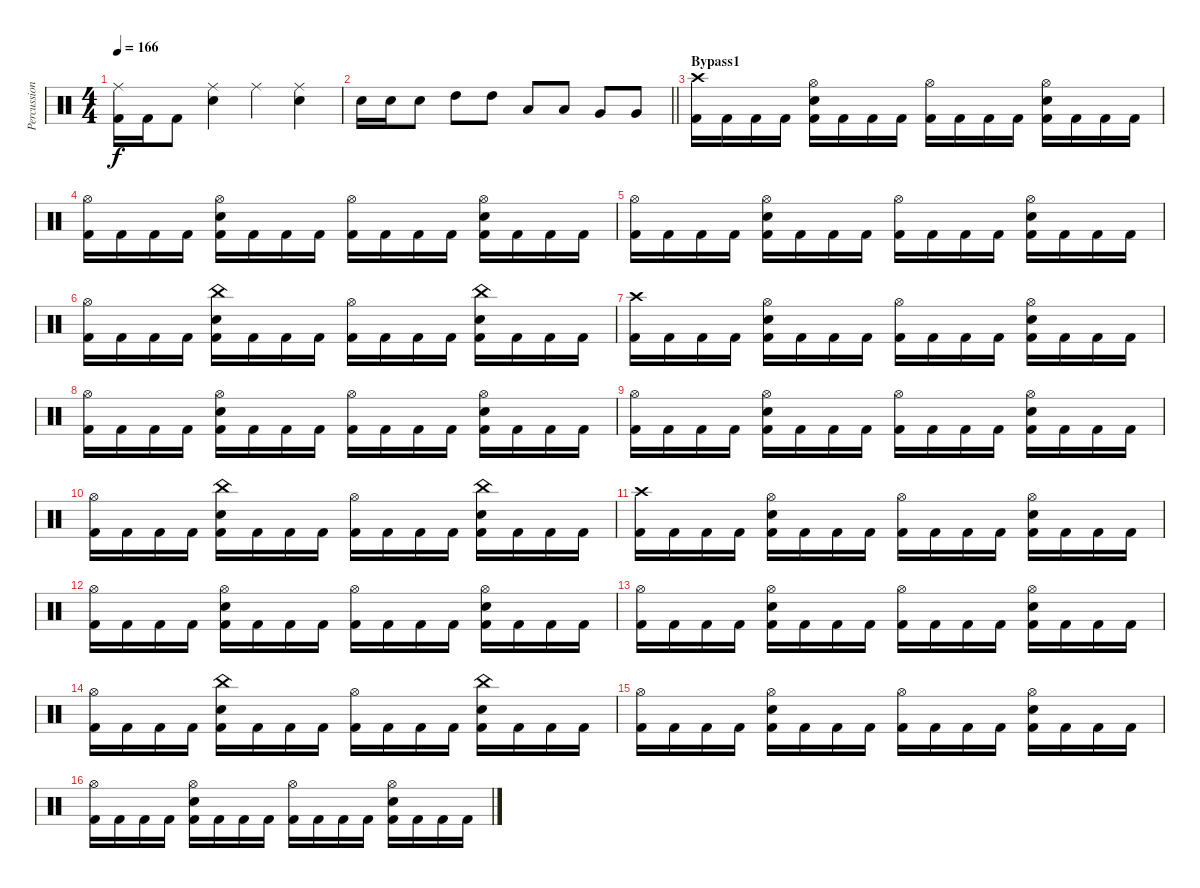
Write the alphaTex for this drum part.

\track ("Percussion" "Percussion") {solo instrument percussion}
\staff {score}
\articulation defaults
\ts (4 4)
\tempo 166
\clef neutral
\ks c
("Ride (middle)" "Kick (hit) 2").16{dy f} "Kick (hit) 2".16 "Kick (hit) 2".8 ("Ride (middle)" "Snare (hit) 2").4 "Ride (middle)".4 ("Ride (middle)" "Snare (hit) 2").4 |
\barLineRight lightlight "Snare (hit) 2".16 "Snare (hit) 2".16 "Snare (hit) 2".8 "High Tom (hit)".8 "High Tom (hit)".8 "Low Tom (hit)".8 "Low Tom (hit)".8 "Very Low Tom (hit)".8 "Very Low Tom (hit)".8
|
\section ("" "Bypass1")
("Crash high (hit)" "Kick (hit) 2").16 "Kick (hit) 2".16 "Kick (hit) 2".16 "Kick (hit) 2".16 ("Snare (hit) 2" "Hi-Hat (open)" "Kick (hit) 2").16 "Kick (hit) 2".16 "Kick (hit) 2".16 "Kick (hit) 2".16 ("Hi-Hat (open)" "Kick (hit) 2").16 "Kick (hit) 2".16 "Kick (hit) 2".16 "Kick (hit) 2".16 ("Snare (hit) 2" "Hi-Hat (open)" "Kick (hit) 2").16 "Kick (hit) 2".16 "Kick (hit) 2".16 "Kick (hit) 2".16 |
("Hi-Hat (open)" "Kick (hit) 2").16 "Kick (hit) 2".16 "Kick (hit) 2".16 "Kick (hit) 2".16 ("Snare (hit) 2" "Hi-Hat (open)" "Kick (hit) 2").16 "Kick (hit) 2".16 "Kick (hit) 2".16 "Kick (hit) 2".16 ("Hi-Hat (open)" "Kick (hit) 2").16 "Kick (hit) 2".16 "Kick (hit) 2".16 "Kick (hit) 2".16 ("Snare (hit) 2" "Hi-Hat (open)" "Kick (hit) 2").16 "Kick (hit) 2".16 "Kick (hit) 2".16 "Kick (hit) 2".16 |
("Hi-Hat (open)" "Kick (hit) 2").16 "Kick (hit) 2".16 "Kick (hit) 2".16 "Kick (hit) 2".16 ("Snare (hit) 2" "Hi-Hat (open)" "Kick (hit) 2").16 "Kick (hit) 2".16 "Kick (hit) 2".16 "Kick (hit) 2".16 ("Hi-Hat (open)" "Kick (hit) 2").16 "Kick (hit) 2".16 "Kick (hit) 2".16 "Kick (hit) 2".16 ("Snare (hit) 2" "Hi-Hat (open)" "Kick (hit) 2").16 "Kick (hit) 2".16 "Kick (hit) 2".16 "Kick (hit) 2".16 |
("Hi-Hat (open)" "Kick (hit) 2").16 "Kick (hit) 2".16 "Kick (hit) 2".16 "Kick (hit) 2".16 ("Snare (hit) 2" "China (hit)" "Kick (hit) 2").16 "Kick (hit) 2".16 "Kick (hit) 2".16 "Kick (hit) 2".16 ("Hi-Hat (open)" "Kick (hit) 2").16 "Kick (hit) 2".16 "Kick (hit) 2".16 "Kick (hit) 2".16 ("Snare (hit) 2" "China (hit)" "Kick (hit) 2").16 "Kick (hit) 2".16 "Kick (hit) 2".16 "Kick (hit) 2".16 |
("Crash high (hit)" "Kick (hit) 2").16 "Kick (hit) 2".16 "Kick (hit) 2".16 "Kick (hit) 2".16 ("Snare (hit) 2" "Hi-Hat (open)" "Kick (hit) 2").16 "Kick (hit) 2".16 "Kick (hit) 2".16 "Kick (hit) 2".16 ("Hi-Hat (open)" "Kick (hit) 2").16 "Kick (hit) 2".16 "Kick (hit) 2".16 "Kick (hit) 2".16 ("Snare (hit) 2" "Hi-Hat (open)" "Kick (hit) 2").16 "Kick (hit) 2".16 "Kick (hit) 2".16 "Kick (hit) 2".16 |
("Hi-Hat (open)" "Kick (hit) 2").16 "Kick (hit) 2".16 "Kick (hit) 2".16 "Kick (hit) 2".16 ("Snare (hit) 2" "Hi-Hat (open)" "Kick (hit) 2").16 "Kick (hit) 2".16 "Kick (hit) 2".16 "Kick (hit) 2".16 ("Hi-Hat (open)" "Kick (hit) 2").16 "Kick (hit) 2".16 "Kick (hit) 2".16 "Kick (hit) 2".16 ("Snare (hit) 2" "Hi-Hat (open)" "Kick (hit) 2").16 "Kick (hit) 2".16 "Kick (hit) 2".16 "Kick (hit) 2".16 |
("Hi-Hat (open)" "Kick (hit) 2").16 "Kick (hit) 2".16 "Kick (hit) 2".16 "Kick (hit) 2".16 ("Snare (hit) 2" "Hi-Hat (open)" "Kick (hit) 2").16 "Kick (hit) 2".16 "Kick (hit) 2".16 "Kick (hit) 2".16 ("Hi-Hat (open)" "Kick (hit) 2").16 "Kick (hit) 2".16 "Kick (hit) 2".16 "Kick (hit) 2".16 ("Snare (hit) 2" "Hi-Hat (open)" "Kick (hit) 2").16 "Kick (hit) 2".16 "Kick (hit) 2".16 "Kick (hit) 2".16 |
("Hi-Hat (open)" "Kick (hit) 2").16 "Kick (hit) 2".16 "Kick (hit) 2".16 "Kick (hit) 2".16 ("Snare (hit) 2" "China (hit)" "Kick (hit) 2").16 "Kick (hit) 2".16 "Kick (hit) 2".16 "Kick (hit) 2".16 ("Hi-Hat (open)" "Kick (hit) 2").16 "Kick (hit) 2".16 "Kick (hit) 2".16 "Kick (hit) 2".16 ("Snare (hit) 2" "China (hit)" "Kick (hit) 2").16 "Kick (hit) 2".16 "Kick (hit) 2".16 "Kick (hit) 2".16 |
("Crash high (hit)" "Kick (hit) 2").16 "Kick (hit) 2".16 "Kick (hit) 2".16 "Kick (hit) 2".16 ("Snare (hit) 2" "Hi-Hat (open)" "Kick (hit) 2").16 "Kick (hit) 2".16 "Kick (hit) 2".16 "Kick (hit) 2".16 ("Hi-Hat (open)" "Kick (hit) 2").16 "Kick (hit) 2".16 "Kick (hit) 2".16 "Kick (hit) 2".16 ("Snare (hit) 2" "Hi-Hat (open)" "Kick (hit) 2").16 "Kick (hit) 2".16 "Kick (hit) 2".16 "Kick (hit) 2".16 |
("Hi-Hat (open)" "Kick (hit) 2").16 "Kick (hit) 2".16 "Kick (hit) 2".16 "Kick (hit) 2".16 ("Snare (hit) 2" "Hi-Hat (open)" "Kick (hit) 2").16 "Kick (hit) 2".16 "Kick (hit) 2".16 "Kick (hit) 2".16 ("Hi-Hat (open)" "Kick (hit) 2").16 "Kick (hit) 2".16 "Kick (hit) 2".16 "Kick (hit) 2".16 ("Snare (hit) 2" "Hi-Hat (open)" "Kick (hit) 2").16 "Kick (hit) 2".16 "Kick (hit) 2".16 "Kick (hit) 2".16 |
("Hi-Hat (open)" "Kick (hit) 2").16 "Kick (hit) 2".16 "Kick (hit) 2".16 "Kick (hit) 2".16 ("Snare (hit) 2" "Hi-Hat (open)" "Kick (hit) 2").16 "Kick (hit) 2".16 "Kick (hit) 2".16 "Kick (hit) 2".16 ("Hi-Hat (open)" "Kick (hit) 2").16 "Kick (hit) 2".16 "Kick (hit) 2".16 "Kick (hit) 2".16 ("Snare (hit) 2" "Hi-Hat (open)" "Kick (hit) 2").16 "Kick (hit) 2".16 "Kick (hit) 2".16 "Kick (hit) 2".16 |
("Hi-Hat (open)" "Kick (hit) 2").16 "Kick (hit) 2".16 "Kick (hit) 2".16 "Kick (hit) 2".16 ("Snare (hit) 2" "China (hit)" "Kick (hit) 2").16 "Kick (hit) 2".16 "Kick (hit) 2".16 "Kick (hit) 2".16 ("Hi-Hat (open)" "Kick (hit) 2").16 "Kick (hit) 2".16 "Kick (hit) 2".16 "Kick (hit) 2".16 ("Snare (hit) 2" "China (hit)" "Kick (hit) 2").16 "Kick (hit) 2".16 "Kick (hit) 2".16 "Kick (hit) 2".16 |
("Hi-Hat (open)" "Kick (hit) 2").16 "Kick (hit) 2".16 "Kick (hit) 2".16 "Kick (hit) 2".16 ("Snare (hit) 2" "Hi-Hat (open)" "Kick (hit) 2").16 "Kick (hit) 2".16 "Kick (hit) 2".16 "Kick (hit) 2".16 ("Hi-Hat (open)" "Kick (hit) 2").16 "Kick (hit) 2".16 "Kick (hit) 2".16 "Kick (hit) 2".16 ("Snare (hit) 2" "Hi-Hat (open)" "Kick (hit) 2").16 "Kick (hit) 2".16 "Kick (hit) 2".16 "Kick (hit) 2".16 |
("Hi-Hat (open)" "Kick (hit) 2").16 "Kick (hit) 2".16 "Kick (hit) 2".16 "Kick (hit) 2".16 ("Snare (hit) 2" "Hi-Hat (open)" "Kick (hit) 2").16 "Kick (hit) 2".16 "Kick (hit) 2".16 "Kick (hit) 2".16 ("Hi-Hat (open)" "Kick (hit) 2").16 "Kick (hit) 2".16 "Kick (hit) 2".16 "Kick (hit) 2".16 ("Snare (hit) 2" "Hi-Hat (open)" "Kick (hit) 2").16 "Kick (hit) 2".16 "Kick (hit) 2".16 "Kick (hit) 2".16
